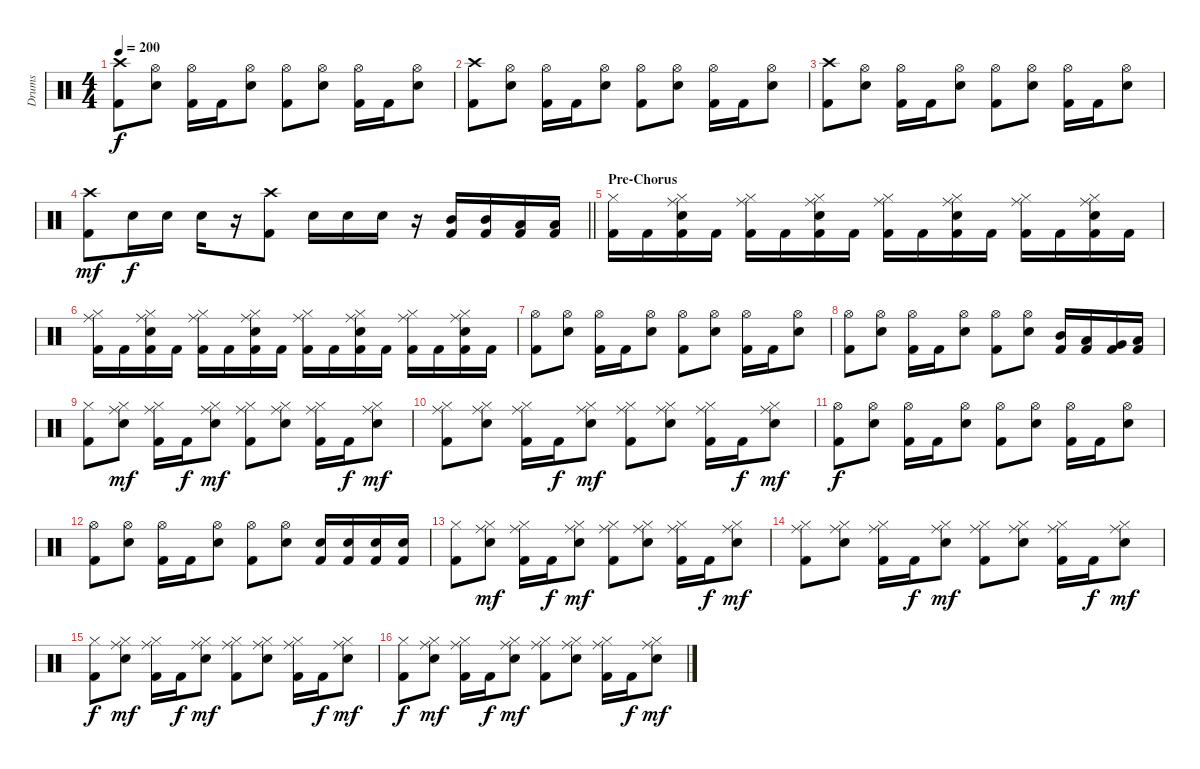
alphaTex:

\track ("Drums" "Drums") {instrument percussion}
\staff {score}
\articulation defaults
\ts (4 4)
\tempo 200
\clef neutral
\ks c
("Crash high (hit)" "Kick (hit) 2").8{dy f} ("Hi-Hat (open)" "Snare (hit) 2").8 ("Hi-Hat (open)" "Kick (hit) 2").16 "Kick (hit) 2".16 ("Hi-Hat (open)" "Snare (hit) 2").8 ("Hi-Hat (open)" "Kick (hit) 2").8 ("Hi-Hat (open)" "Snare (hit) 2").8 ("Hi-Hat (open)" "Kick (hit) 2").16 "Kick (hit) 2".16 ("Hi-Hat (open)" "Snare (hit) 2").8 |
("Crash high (hit)" "Kick (hit) 2").8 ("Hi-Hat (open)" "Snare (hit) 2").8 ("Hi-Hat (open)" "Kick (hit) 2").16 "Kick (hit) 2".16 ("Hi-Hat (open)" "Snare (hit) 2").8 ("Hi-Hat (open)" "Kick (hit) 2").8 ("Hi-Hat (open)" "Snare (hit) 2").8 ("Hi-Hat (open)" "Kick (hit) 2").16 "Kick (hit) 2".16 ("Hi-Hat (open)" "Snare (hit) 2").8 |
("Crash high (hit)" "Kick (hit) 2").8 ("Hi-Hat (open)" "Snare (hit) 2").8 ("Hi-Hat (open)" "Kick (hit) 2").16 "Kick (hit) 2".16 ("Hi-Hat (open)" "Snare (hit) 2").8 ("Hi-Hat (open)" "Kick (hit) 2").8 ("Hi-Hat (open)" "Snare (hit) 2").8 ("Hi-Hat (open)" "Kick (hit) 2").16 "Kick (hit) 2".16 ("Hi-Hat (open)" "Snare (hit) 2").8 |
\barLineRight lightlight
("Crash high (hit)" "Kick (hit) 2").8{dy mf} "Snare (hit) 2".16{dy f} "Snare (hit) 2".16 "Snare (hit) 2".16 r.16 ("Crash high (hit)" "Kick (hit) 2").8 "Snare (hit) 2".16 "Snare (hit) 2".16 "Snare (hit) 2".16 r.16 ("Mid Tom (hit)" "Kick (hit) 2").16 ("Mid Tom (hit)" "Kick (hit) 2").16 ("Low Tom (hit)" "Kick (hit) 2").16 ("Low Tom (hit)" "Kick (hit) 2").16 |
\section ("" "Pre-Chorus")
("Hi-Hat (closed)" "Kick (hit) 2").16 "Kick (hit) 2".16 ("Hi-Hat (closed)" "Ride (middle)" "Snare (hit) 2" "Kick (hit) 2").16 "Kick (hit) 2".16 ("Hi-Hat (closed)" "Ride (middle)" "Kick (hit) 2").16 "Kick (hit) 2".16 ("Hi-Hat (closed)" "Ride (middle)" "Snare (hit) 2" "Kick (hit) 2").16 "Kick (hit) 2".16 ("Hi-Hat (closed)" "Ride (middle)" "Kick (hit) 2").16 "Kick (hit) 2".16 ("Hi-Hat (closed)" "Ride (middle)" "Snare (hit) 2" "Kick (hit) 2").16 "Kick (hit) 2".16 ("Hi-Hat (closed)" "Ride (middle)" "Kick (hit) 2").16 "Kick (hit) 2".16 ("Hi-Hat (closed)" "Ride (middle)" "Snare (hit) 2" "Kick (hit) 2").16 "Kick (hit) 2".16 |
("Hi-Hat (closed)" "Ride (middle)" "Kick (hit) 2").16 "Kick (hit) 2".16 ("Hi-Hat (closed)" "Ride (middle)" "Snare (hit) 2" "Kick (hit) 2").16 "Kick (hit) 2".16 ("Hi-Hat (closed)" "Ride (middle)" "Kick (hit) 2").16 "Kick (hit) 2".16 ("Hi-Hat (closed)" "Ride (middle)" "Snare (hit) 2" "Kick (hit) 2").16 "Kick (hit) 2".16 ("Hi-Hat (closed)" "Ride (middle)" "Kick (hit) 2").16 "Kick (hit) 2".16 ("Hi-Hat (closed)" "Ride (middle)" "Snare (hit) 2" "Kick (hit) 2").16 "Kick (hit) 2".16 ("Hi-Hat (closed)" "Ride (middle)" "Kick (hit) 2").16 "Kick (hit) 2".16 ("Hi-Hat (closed)" "Ride (middle)" "Snare (hit) 2" "Kick (hit) 2").16 "Kick (hit) 2".16 |
("Hi-Hat (open)" "Kick (hit) 2").8 ("Hi-Hat (open)" "Snare (hit) 2").8 ("Hi-Hat (open)" "Kick (hit) 2").16 "Kick (hit) 2".16 ("Hi-Hat (open)" "Snare (hit) 2").8 ("Hi-Hat (open)" "Kick (hit) 2").8 ("Hi-Hat (open)" "Snare (hit) 2").8 ("Hi-Hat (open)" "Kick (hit) 2").16 "Kick (hit) 2".16 ("Hi-Hat (open)" "Snare (hit) 2").8 |
("Hi-Hat (open)" "Kick (hit) 2").8 ("Hi-Hat (open)" "Snare (hit) 2").8 ("Hi-Hat (open)" "Kick (hit) 2").16 "Kick (hit) 2".16 ("Hi-Hat (open)" "Snare (hit) 2").8 ("Hi-Hat (open)" "Kick (hit) 2").8 ("Hi-Hat (open)" "Snare (hit) 2").8 ("Mid Tom (hit)" "Kick (hit) 2").16 ("Low Tom (hit)" "Kick (hit) 2").16 ("Very Low Tom (hit)" "Kick (hit) 2").16 ("Low Floor Tom (hit)" "Kick (hit) 2").16 |
("Hi-Hat (closed)" "Kick (hit) 2").8 ("Hi-Hat (closed)" "Ride (middle)" "Snare (hit) 2").8{dy mf} ("Hi-Hat (closed)" "Ride (middle)" "Kick (hit) 2").16 "Kick (hit) 2".16{dy f} ("Hi-Hat (closed)" "Ride (middle)" "Snare (hit) 2").8{dy mf} ("Hi-Hat (closed)" "Ride (middle)" "Kick (hit) 2").8 ("Hi-Hat (closed)" "Ride (middle)" "Snare (hit) 2").8 ("Hi-Hat (closed)" "Ride (middle)" "Kick (hit) 2").16 "Kick (hit) 2".16{dy f} ("Hi-Hat (closed)" "Ride (middle)" "Snare (hit) 2").8{dy mf} |
("Hi-Hat (closed)" "Ride (middle)" "Kick (hit) 2").8 ("Hi-Hat (closed)" "Ride (middle)" "Snare (hit) 2").8 ("Hi-Hat (closed)" "Ride (middle)" "Kick (hit) 2").16 "Kick (hit) 2".16{dy f} ("Hi-Hat (closed)" "Ride (middle)" "Snare (hit) 2").8{dy mf} ("Hi-Hat (closed)" "Ride (middle)" "Kick (hit) 2").8 ("Hi-Hat (closed)" "Ride (middle)" "Snare (hit) 2").8 ("Hi-Hat (closed)" "Ride (middle)" "Kick (hit) 2").16 "Kick (hit) 2".16{dy f} ("Hi-Hat (closed)" "Ride (middle)" "Snare (hit) 2").8{dy mf} |
("Hi-Hat (open)" "Kick (hit) 2").8{dy f} ("Hi-Hat (open)" "Snare (hit) 2").8 ("Hi-Hat (open)" "Kick (hit) 2").16 "Kick (hit) 2".16 ("Hi-Hat (open)" "Snare (hit) 2").8 ("Hi-Hat (open)" "Kick (hit) 2").8 ("Hi-Hat (open)" "Snare (hit) 2").8 ("Hi-Hat (open)" "Kick (hit) 2").16 "Kick (hit) 2".16 ("Hi-Hat (open)" "Snare (hit) 2").8 |
("Hi-Hat (open)" "Kick (hit) 2").8 ("Hi-Hat (open)" "Snare (hit) 2").8 ("Hi-Hat (open)" "Kick (hit) 2").16 "Kick (hit) 2".16 ("Hi-Hat (open)" "Snare (hit) 2").8 ("Hi-Hat (open)" "Kick (hit) 2").8 ("Hi-Hat (open)" "Snare (hit) 2").8 ("Snare (hit) 2" "Kick (hit) 2").16 ("Snare (hit) 2" "Kick (hit) 2").16 ("Snare (hit) 2" "Kick (hit) 2").16 ("Snare (hit) 2" "Kick (hit) 2").16 |
("Hi-Hat (closed)" "Kick (hit) 2").8 ("Hi-Hat (closed)" "Ride (middle)" "Snare (hit) 2").8{dy mf} ("Hi-Hat (closed)" "Ride (middle)" "Kick (hit) 2").16 "Kick (hit) 2".16{dy f} ("Hi-Hat (closed)" "Ride (middle)" "Snare (hit) 2").8{dy mf} ("Hi-Hat (closed)" "Ride (middle)" "Kick (hit) 2").8 ("Hi-Hat (closed)" "Ride (middle)" "Snare (hit) 2").8 ("Hi-Hat (closed)" "Ride (middle)" "Kick (hit) 2").16 "Kick (hit) 2".16{dy f} ("Hi-Hat (closed)" "Ride (middle)" "Snare (hit) 2").8{dy mf} |
("Hi-Hat (closed)" "Ride (middle)" "Kick (hit) 2").8 ("Hi-Hat (closed)" "Ride (middle)" "Snare (hit) 2").8 ("Hi-Hat (closed)" "Ride (middle)" "Kick (hit) 2").16 "Kick (hit) 2".16{dy f} ("Hi-Hat (closed)" "Ride (middle)" "Snare (hit) 2").8{dy mf} ("Hi-Hat (closed)" "Ride (middle)" "Kick (hit) 2").8 ("Hi-Hat (closed)" "Ride (middle)" "Snare (hit) 2").8 ("Hi-Hat (closed)" "Ride (middle)" "Kick (hit) 2").16 "Kick (hit) 2".16{dy f} ("Hi-Hat (closed)" "Ride (middle)" "Snare (hit) 2").8{dy mf} |
("Hi-Hat (closed)" "Kick (hit) 2").8{dy f} ("Hi-Hat (closed)" "Ride (middle)" "Snare (hit) 2").8{dy mf} ("Hi-Hat (closed)" "Ride (middle)" "Kick (hit) 2").16 "Kick (hit) 2".16{dy f} ("Hi-Hat (closed)" "Ride (middle)" "Snare (hit) 2").8{dy mf} ("Hi-Hat (closed)" "Ride (middle)" "Kick (hit) 2").8 ("Hi-Hat (closed)" "Ride (middle)" "Snare (hit) 2").8 ("Hi-Hat (closed)" "Ride (middle)" "Kick (hit) 2").16 "Kick (hit) 2".16{dy f} ("Hi-Hat (closed)" "Ride (middle)" "Snare (hit) 2").8{dy mf} |
("Hi-Hat (closed)" "Kick (hit) 2").8{dy f} ("Hi-Hat (closed)" "Ride (middle)" "Snare (hit) 2").8{dy mf} ("Hi-Hat (closed)" "Ride (middle)" "Kick (hit) 2").16 "Kick (hit) 2".16{dy f} ("Hi-Hat (closed)" "Ride (middle)" "Snare (hit) 2").8{dy mf} ("Hi-Hat (closed)" "Ride (middle)" "Kick (hit) 2").8 ("Hi-Hat (closed)" "Ride (middle)" "Snare (hit) 2").8 ("Hi-Hat (closed)" "Ride (middle)" "Kick (hit) 2").16 "Kick (hit) 2".16{dy f} ("Hi-Hat (closed)" "Ride (middle)" "Snare (hit) 2").8{dy mf}
